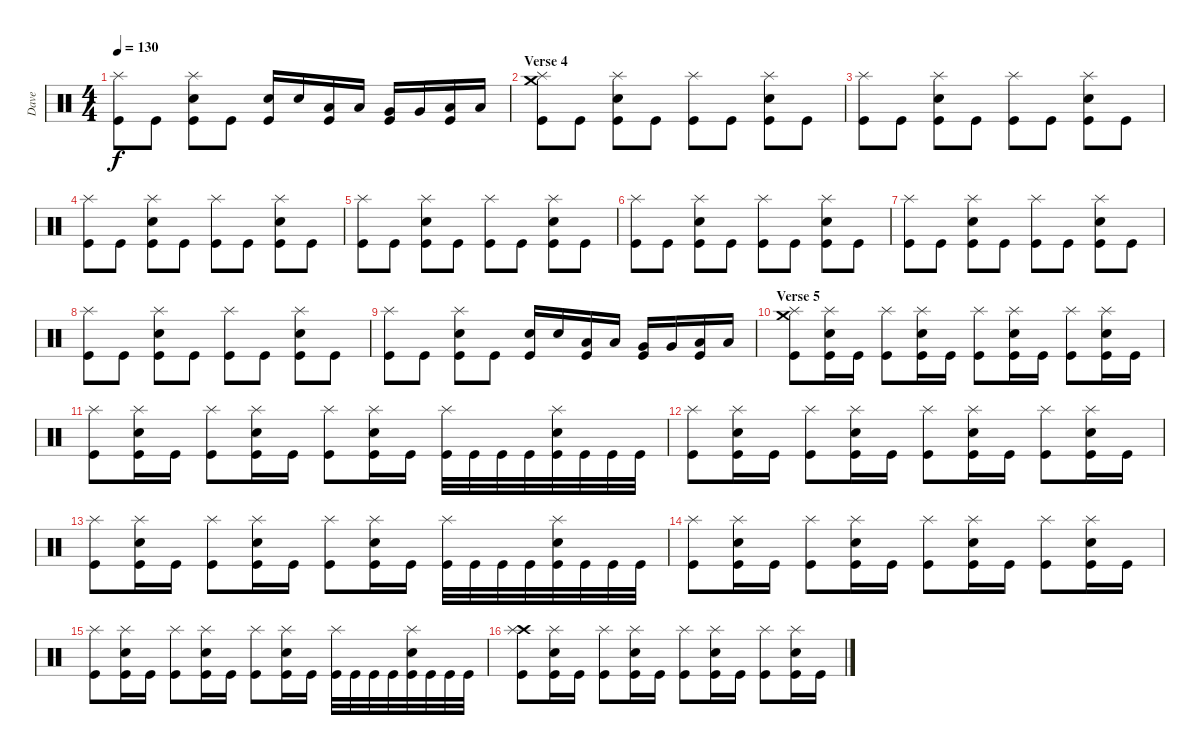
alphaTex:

\track ("Dave" "Dave") {instrument percussion}
\staff {score}
\articulation defaults
\ts (4 4)
\tempo 130
\clef neutral
\ks c
("Splash (hit)" "Kick (hit)").8{dy f} "Kick (hit)".8 ("Splash (hit)" "Electric Snare (hit)" "Kick (hit)").8 "Kick (hit)".8 ("Electric Snare (hit)" "Kick (hit)").16 "Electric Snare (hit)".16 ("Low Tom (hit)" "Kick (hit)").16 "Low Tom (hit)".16 ("Very Low Tom (hit)" "Kick (hit)").16 "Very Low Tom (hit)".16 ("Low Floor Tom (hit)" "Kick (hit)").16 "Low Floor Tom (hit)".16 |
\section ("" "Verse 4")
("Crash medium (hit)" "Splash (hit)" "Kick (hit)").8 "Kick (hit)".8 ("Splash (hit)" "Electric Snare (hit)" "Kick (hit)").8 "Kick (hit)".8 ("Splash (hit)" "Kick (hit)").8 "Kick (hit)".8 ("Splash (hit)" "Electric Snare (hit)" "Kick (hit)").8 "Kick (hit)".8 |
("Splash (hit)" "Kick (hit)").8 "Kick (hit)".8 ("Splash (hit)" "Electric Snare (hit)" "Kick (hit)").8 "Kick (hit)".8 ("Splash (hit)" "Kick (hit)").8 "Kick (hit)".8 ("Splash (hit)" "Electric Snare (hit)" "Kick (hit)").8 "Kick (hit)".8 |
("Splash (hit)" "Kick (hit)").8 "Kick (hit)".8 ("Splash (hit)" "Electric Snare (hit)" "Kick (hit)").8 "Kick (hit)".8 ("Splash (hit)" "Kick (hit)").8 "Kick (hit)".8 ("Splash (hit)" "Electric Snare (hit)" "Kick (hit)").8 "Kick (hit)".8 |
("Splash (hit)" "Kick (hit)").8 "Kick (hit)".8 ("Splash (hit)" "Electric Snare (hit)" "Kick (hit)").8 "Kick (hit)".8 ("Splash (hit)" "Kick (hit)").8 "Kick (hit)".8 ("Splash (hit)" "Electric Snare (hit)" "Kick (hit)").8 "Kick (hit)".8 |
("Splash (hit)" "Kick (hit)").8 "Kick (hit)".8 ("Splash (hit)" "Electric Snare (hit)" "Kick (hit)").8 "Kick (hit)".8 ("Splash (hit)" "Kick (hit)").8 "Kick (hit)".8 ("Splash (hit)" "Electric Snare (hit)" "Kick (hit)").8 "Kick (hit)".8 |
("Splash (hit)" "Kick (hit)").8 "Kick (hit)".8 ("Splash (hit)" "Electric Snare (hit)" "Kick (hit)").8 "Kick (hit)".8 ("Splash (hit)" "Kick (hit)").8 "Kick (hit)".8 ("Splash (hit)" "Electric Snare (hit)" "Kick (hit)").8 "Kick (hit)".8 |
("Splash (hit)" "Kick (hit)").8 "Kick (hit)".8 ("Splash (hit)" "Electric Snare (hit)" "Kick (hit)").8 "Kick (hit)".8 ("Splash (hit)" "Kick (hit)").8 "Kick (hit)".8 ("Splash (hit)" "Electric Snare (hit)" "Kick (hit)").8 "Kick (hit)".8 |
("Splash (hit)" "Kick (hit)").8 "Kick (hit)".8 ("Splash (hit)" "Electric Snare (hit)" "Kick (hit)").8 "Kick (hit)".8 ("Electric Snare (hit)" "Kick (hit)").16 "Electric Snare (hit)".16 ("Low Tom (hit)" "Kick (hit)").16 "Low Tom (hit)".16 ("Very Low Tom (hit)" "Kick (hit)").16 "Very Low Tom (hit)".16 ("Low Floor Tom (hit)" "Kick (hit)").16 "Low Floor Tom (hit)".16 |
\section ("" "Verse 5")
("Crash medium (hit)" "Splash (hit)" "Kick (hit)").8 ("Splash (hit)" "Electric Snare (hit)" "Kick (hit)").16 "Kick (hit)".16 ("Splash (hit)" "Kick (hit)").8 ("Splash (hit)" "Electric Snare (hit)" "Kick (hit)").16 "Kick (hit)".16 ("Splash (hit)" "Kick (hit)").8 ("Splash (hit)" "Electric Snare (hit)" "Kick (hit)").16 "Kick (hit)".16 ("Splash (hit)" "Kick (hit)").8 ("Splash (hit)" "Electric Snare (hit)" "Kick (hit)").16 "Kick (hit)".16 |
("Splash (hit)" "Kick (hit)").8 ("Splash (hit)" "Electric Snare (hit)" "Kick (hit)").16 "Kick (hit)".16 ("Splash (hit)" "Kick (hit)").8 ("Splash (hit)" "Electric Snare (hit)" "Kick (hit)").16 "Kick (hit)".16 ("Splash (hit)" "Kick (hit)").8 ("Splash (hit)" "Electric Snare (hit)" "Kick (hit)").16 "Kick (hit)".16 ("Splash (hit)" "Kick (hit)").32 "Kick (hit)".32 "Kick (hit)".32 "Kick (hit)".32 ("Splash (hit)" "Electric Snare (hit)" "Kick (hit)").32 "Kick (hit)".32 "Kick (hit)".32 "Kick (hit)".32 |
("Splash (hit)" "Kick (hit)").8 ("Splash (hit)" "Electric Snare (hit)" "Kick (hit)").16 "Kick (hit)".16 ("Splash (hit)" "Kick (hit)").8 ("Splash (hit)" "Electric Snare (hit)" "Kick (hit)").16 "Kick (hit)".16 ("Splash (hit)" "Kick (hit)").8 ("Splash (hit)" "Electric Snare (hit)" "Kick (hit)").16 "Kick (hit)".16 ("Splash (hit)" "Kick (hit)").8 ("Splash (hit)" "Electric Snare (hit)" "Kick (hit)").16 "Kick (hit)".16 |
("Splash (hit)" "Kick (hit)").8 ("Splash (hit)" "Electric Snare (hit)" "Kick (hit)").16 "Kick (hit)".16 ("Splash (hit)" "Kick (hit)").8 ("Splash (hit)" "Electric Snare (hit)" "Kick (hit)").16 "Kick (hit)".16 ("Splash (hit)" "Kick (hit)").8 ("Splash (hit)" "Electric Snare (hit)" "Kick (hit)").16 "Kick (hit)".16 ("Splash (hit)" "Kick (hit)").32 "Kick (hit)".32 "Kick (hit)".32 "Kick (hit)".32 ("Splash (hit)" "Electric Snare (hit)" "Kick (hit)").32 "Kick (hit)".32 "Kick (hit)".32 "Kick (hit)".32 |
("Splash (hit)" "Kick (hit)").8 ("Splash (hit)" "Electric Snare (hit)" "Kick (hit)").16 "Kick (hit)".16 ("Splash (hit)" "Kick (hit)").8 ("Splash (hit)" "Electric Snare (hit)" "Kick (hit)").16 "Kick (hit)".16 ("Splash (hit)" "Kick (hit)").8 ("Splash (hit)" "Electric Snare (hit)" "Kick (hit)").16 "Kick (hit)".16 ("Splash (hit)" "Kick (hit)").8 ("Splash (hit)" "Electric Snare (hit)" "Kick (hit)").16 "Kick (hit)".16 |
("Splash (hit)" "Kick (hit)").8 ("Splash (hit)" "Electric Snare (hit)" "Kick (hit)").16 "Kick (hit)".16 ("Splash (hit)" "Kick (hit)").8 ("Splash (hit)" "Electric Snare (hit)" "Kick (hit)").16 "Kick (hit)".16 ("Splash (hit)" "Kick (hit)").8 ("Splash (hit)" "Electric Snare (hit)" "Kick (hit)").16 "Kick (hit)".16 ("Splash (hit)" "Kick (hit)").32 "Kick (hit)".32 "Kick (hit)".32 "Kick (hit)".32 ("Splash (hit)" "Electric Snare (hit)" "Kick (hit)").32 "Kick (hit)".32 "Kick (hit)".32 "Kick (hit)".32 |
("Crash high (hit)" "Splash (hit)" "Kick (hit)").8 ("Splash (hit)" "Electric Snare (hit)" "Kick (hit)").16 "Kick (hit)".16 ("Splash (hit)" "Kick (hit)").8 ("Splash (hit)" "Electric Snare (hit)" "Kick (hit)").16 "Kick (hit)".16 ("Splash (hit)" "Kick (hit)").8 ("Splash (hit)" "Electric Snare (hit)" "Kick (hit)").16 "Kick (hit)".16 ("Splash (hit)" "Kick (hit)").8 ("Splash (hit)" "Electric Snare (hit)" "Kick (hit)").16 "Kick (hit)".16
